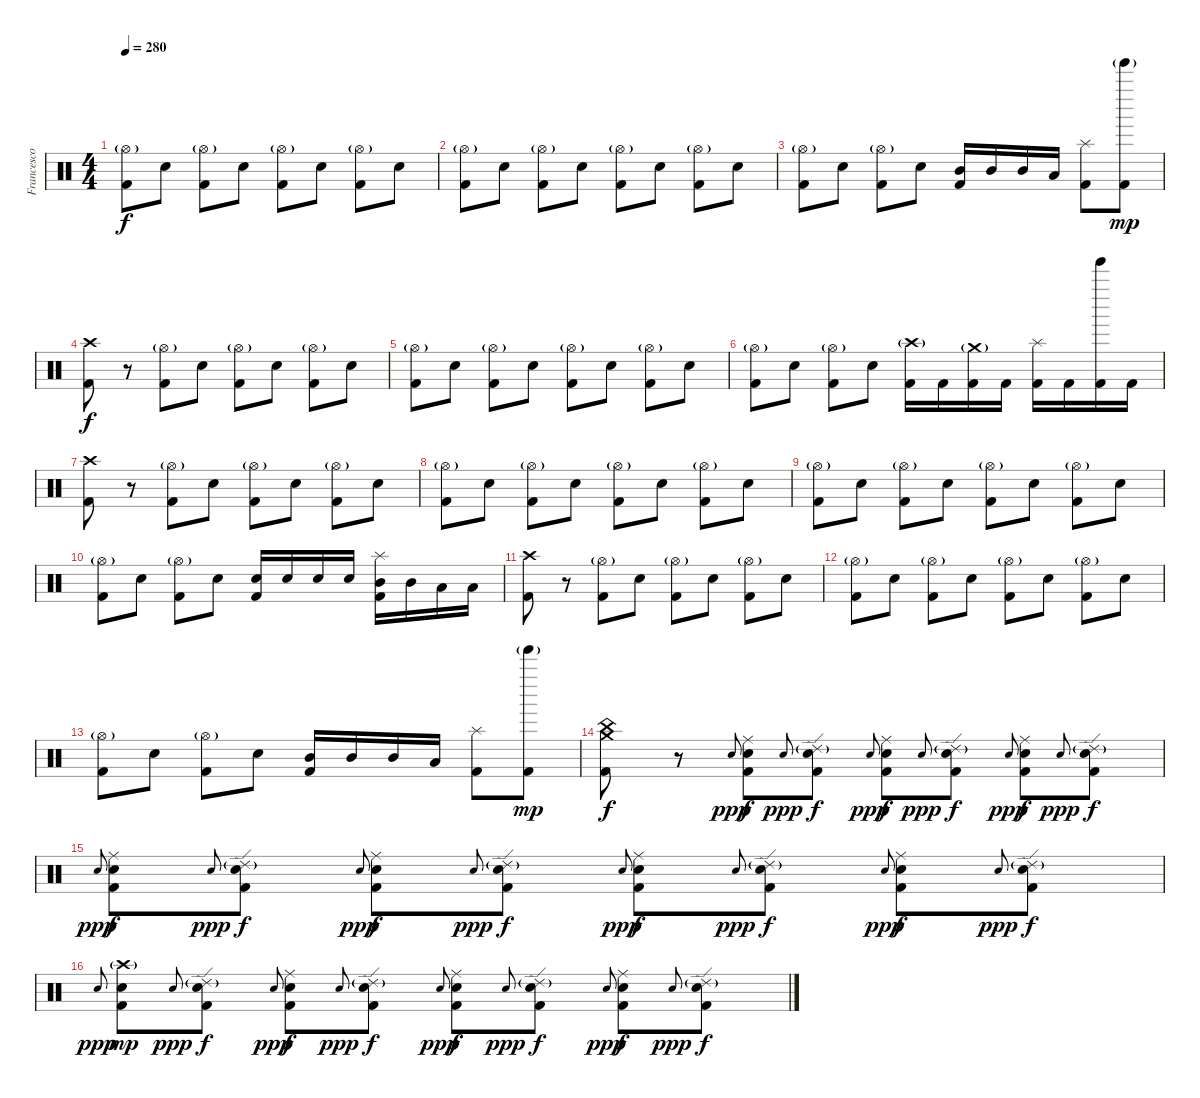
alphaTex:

\track ("Francesco Ferrini" "Francesco ") {instrument percussion}
\staff {score}
\articulation defaults
\ts (4 4)
\tempo 280
\clef neutral
\ks c
("Hi-Hat (open)"{g} "Kick (hit) 2").8{dy f} "Electric Snare (hit)".8 ("Hi-Hat (open)"{g} "Kick (hit) 2").8 "Electric Snare (hit)".8 ("Hi-Hat (open)"{g} "Kick (hit) 2").8 "Electric Snare (hit)".8 ("Hi-Hat (open)"{g} "Kick (hit) 2").8 "Electric Snare (hit)".8 |
("Hi-Hat (open)"{g} "Kick (hit) 2").8 "Electric Snare (hit)".8 ("Hi-Hat (open)"{g} "Kick (hit) 2").8 "Electric Snare (hit)".8 ("Hi-Hat (open)"{g} "Kick (hit) 2").8 "Electric Snare (hit)".8 ("Hi-Hat (open)"{g} "Kick (hit) 2").8 "Electric Snare (hit)".8 |
("Hi-Hat (open)"{g} "Kick (hit) 2").8 "Electric Snare (hit)".8 ("Hi-Hat (open)"{g} "Kick (hit) 2").8 "Electric Snare (hit)".8 ("Mid Tom (hit)" "Kick (hit) 2").16 "Mid Tom (hit)".16 "Mid Tom (hit)".16 "Low Tom (hit)".16 ("Splash (hit)" "Kick (hit) 2").8 ("Tinkle Bell (hit)"{g} "Kick (hit) 2").8{dy mp} |
("Crash high (hit)" "Kick (hit) 2").8{dy f} r.8 ("Hi-Hat (open)"{g} "Kick (hit) 2").8 "Electric Snare (hit)".8 ("Hi-Hat (open)"{g} "Kick (hit) 2").8 "Electric Snare (hit)".8 ("Hi-Hat (open)"{g} "Kick (hit) 2").8 "Electric Snare (hit)".8 |
("Hi-Hat (open)"{g} "Kick (hit) 2").8 "Electric Snare (hit)".8 ("Hi-Hat (open)"{g} "Kick (hit) 2").8 "Electric Snare (hit)".8 ("Hi-Hat (open)"{g} "Kick (hit) 2").8 "Electric Snare (hit)".8 ("Hi-Hat (open)"{g} "Kick (hit) 2").8 "Electric Snare (hit)".8 |
("Hi-Hat (open)"{g} "Kick (hit) 2").8 "Electric Snare (hit)".8 ("Hi-Hat (open)"{g} "Kick (hit) 2").8 "Electric Snare (hit)".8 ("Crash high (hit)"{g} "Kick (hit) 2").16 "Kick (hit) 2".16 ("Crash medium (hit)"{g} "Kick (hit) 2").16 "Kick (hit) 2".16 ("Splash (hit)" "Kick (hit) 2").16 "Kick (hit) 2".16 ("Tinkle Bell (hit)" "Kick (hit) 2").16 "Kick (hit) 2".16 |
("Crash high (hit)" "Kick (hit) 2").8 r.8 ("Hi-Hat (open)"{g} "Kick (hit) 2").8 "Electric Snare (hit)".8 ("Hi-Hat (open)"{g} "Kick (hit) 2").8 "Electric Snare (hit)".8 ("Hi-Hat (open)"{g} "Kick (hit) 2").8 "Electric Snare (hit)".8 |
("Hi-Hat (open)"{g} "Kick (hit) 2").8 "Electric Snare (hit)".8 ("Hi-Hat (open)"{g} "Kick (hit) 2").8 "Electric Snare (hit)".8 ("Hi-Hat (open)"{g} "Kick (hit) 2").8 "Electric Snare (hit)".8 ("Hi-Hat (open)"{g} "Kick (hit) 2").8 "Electric Snare (hit)".8 |
("Hi-Hat (open)"{g} "Kick (hit) 2").8 "Electric Snare (hit)".8 ("Hi-Hat (open)"{g} "Kick (hit) 2").8 "Electric Snare (hit)".8 ("Hi-Hat (open)"{g} "Kick (hit) 2").8 "Electric Snare (hit)".8 ("Hi-Hat (open)"{g} "Kick (hit) 2").8 "Electric Snare (hit)".8 |
("Hi-Hat (open)"{g} "Kick (hit) 2").8 "Electric Snare (hit)".8 ("Hi-Hat (open)"{g} "Kick (hit) 2").8 "Electric Snare (hit)".8 ("Electric Snare (hit)" "Kick (hit) 2").16 "Electric Snare (hit)".16 "Electric Snare (hit)".16 "Electric Snare (hit)".16 ("Splash (hit)" "Mid Tom (hit)" "Kick (hit) 2").16 "Mid Tom (hit)".16 "Low Tom (hit)".16 "Low Tom (hit)".16 |
("Crash high (hit)" "Kick (hit) 2").8 r.8 ("Hi-Hat (open)"{g} "Kick (hit) 2").8 "Electric Snare (hit)".8 ("Hi-Hat (open)"{g} "Kick (hit) 2").8 "Electric Snare (hit)".8 ("Hi-Hat (open)"{g} "Kick (hit) 2").8 "Electric Snare (hit)".8 |
("Hi-Hat (open)"{g} "Kick (hit) 2").8 "Electric Snare (hit)".8 ("Hi-Hat (open)"{g} "Kick (hit) 2").8 "Electric Snare (hit)".8 ("Hi-Hat (open)"{g} "Kick (hit) 2").8 "Electric Snare (hit)".8 ("Hi-Hat (open)"{g} "Kick (hit) 2").8 "Electric Snare (hit)".8 |
("Hi-Hat (open)"{g} "Kick (hit) 2").8 "Electric Snare (hit)".8 ("Hi-Hat (open)"{g} "Kick (hit) 2").8 "Electric Snare (hit)".8 ("Mid Tom (hit)" "Kick (hit) 2").16 "Mid Tom (hit)".16 "Mid Tom (hit)".16 "Low Tom (hit)".16 ("Splash (hit)" "Kick (hit) 2").8 ("Tinkle Bell (hit)"{g} "Kick (hit) 2").8{dy mp} |
("China (hit)" "Crash medium (hit)" "Kick (hit) 2").8{dy f} r.8 "Electric Snare (hit)"{h}.8{gr onbeat dy ppp} ("Ride (middle)" "Electric Snare (hit)" "Kick (hit) 2").8{dy f} "Electric Snare (hit)"{h}.8{gr onbeat dy ppp} ("Ride (edge) 2"{g} "Electric Snare (hit)" "Kick (hit) 2").8{dy f} "Electric Snare (hit)"{h}.8{gr onbeat dy ppp} ("Ride (middle)" "Electric Snare (hit)" "Kick (hit) 2").8{dy f} "Electric Snare (hit)"{h}.8{gr onbeat dy ppp} ("Ride (edge) 2"{g} "Electric Snare (hit)" "Kick (hit) 2").8{dy f} "Electric Snare (hit)"{h}.8{gr onbeat dy ppp} ("Ride (middle)" "Electric Snare (hit)" "Kick (hit) 2").8{dy f} "Electric Snare (hit)"{h}.8{gr onbeat dy ppp} ("Ride (edge) 2"{g} "Electric Snare (hit)" "Kick (hit) 2").8{dy f} |
"Electric Snare (hit)"{h}.8{gr onbeat dy ppp} ("Ride (middle)" "Electric Snare (hit)" "Kick (hit) 2").8{dy f} "Electric Snare (hit)"{h}.8{gr onbeat dy ppp} ("Ride (edge) 2"{g} "Electric Snare (hit)" "Kick (hit) 2").8{dy f} "Electric Snare (hit)"{h}.8{gr onbeat dy ppp} ("Ride (middle)" "Electric Snare (hit)" "Kick (hit) 2").8{dy f} "Electric Snare (hit)"{h}.8{gr onbeat dy ppp} ("Ride (edge) 2"{g} "Electric Snare (hit)" "Kick (hit) 2").8{dy f} "Electric Snare (hit)"{h}.8{gr onbeat dy ppp} ("Ride (middle)" "Electric Snare (hit)" "Kick (hit) 2").8{dy f} "Electric Snare (hit)"{h}.8{gr onbeat dy ppp} ("Ride (edge) 2"{g} "Electric Snare (hit)" "Kick (hit) 2").8{dy f} "Electric Snare (hit)"{h}.8{gr onbeat dy ppp} ("Ride (middle)" "Electric Snare (hit)" "Kick (hit) 2").8{dy f} "Electric Snare (hit)"{h}.8{gr onbeat dy ppp} ("Ride (edge) 2"{g} "Electric Snare (hit)" "Kick (hit) 2").8{dy f} |
"Electric Snare (hit)"{h}.8{gr onbeat dy ppp} ("Crash high (hit)"{g} "Electric Snare (hit)" "Kick (hit) 2").8{dy mp} "Electric Snare (hit)"{h}.8{gr onbeat dy ppp} ("Ride (edge) 2"{g} "Electric Snare (hit)" "Kick (hit) 2").8{dy f} "Electric Snare (hit)"{h}.8{gr onbeat dy ppp} ("Ride (middle)" "Electric Snare (hit)" "Kick (hit) 2").8{dy f} "Electric Snare (hit)"{h}.8{gr onbeat dy ppp} ("Ride (edge) 2"{g} "Electric Snare (hit)" "Kick (hit) 2").8{dy f} "Electric Snare (hit)"{h}.8{gr onbeat dy ppp} ("Ride (middle)" "Electric Snare (hit)" "Kick (hit) 2").8{dy f} "Electric Snare (hit)"{h}.8{gr onbeat dy ppp} ("Ride (edge) 2"{g} "Electric Snare (hit)" "Kick (hit) 2").8{dy f} "Electric Snare (hit)"{h}.8{gr onbeat dy ppp} ("Ride (middle)" "Electric Snare (hit)" "Kick (hit) 2").8{dy f} "Electric Snare (hit)"{h}.8{gr onbeat dy ppp} ("Ride (edge) 2"{g} "Electric Snare (hit)" "Kick (hit) 2").8{dy f}
